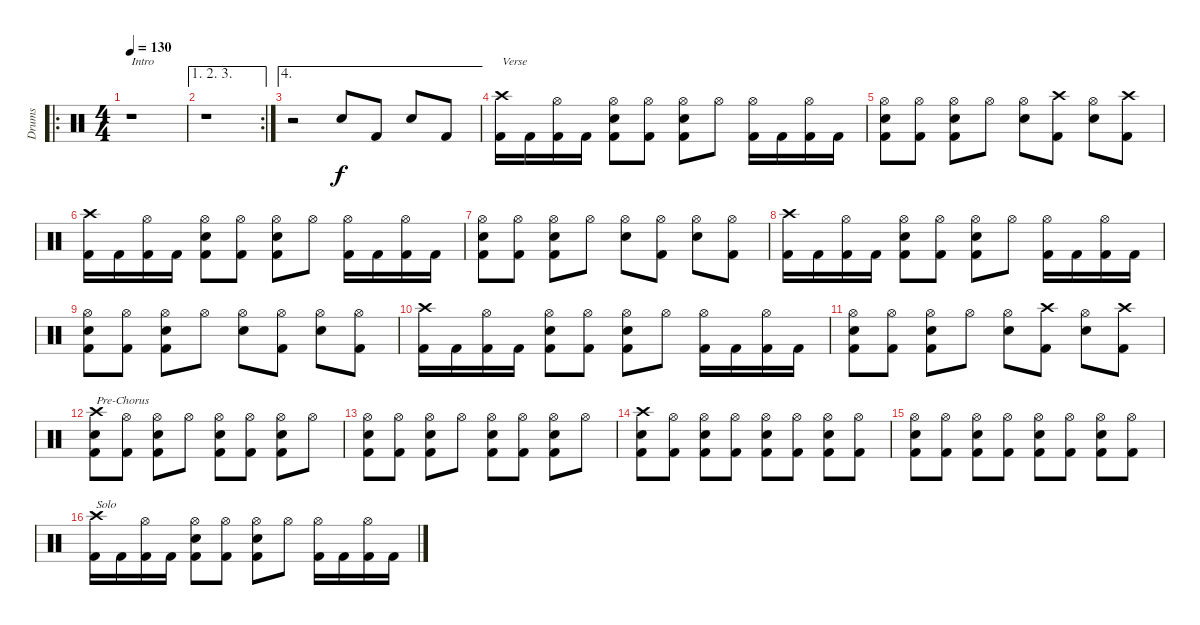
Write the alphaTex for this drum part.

\track ("Drums" "Drums") {instrument percussion}
\staff {score}
\articulation defaults
\ro
\ts (4 4)
\tempo 130
\clef neutral
\ks c
r.1{txt "Intro" dy f} |
\ae (1 2 3)
\rc 2
r.1 |
\ae 4
r.2 "Snare (hit) 2".8 "Kick (hit) 2".8 "Snare (hit) 2".8 "Kick (hit) 2".8 |
("Crash high (hit)" "Kick (hit) 2").16{txt "Verse"} "Kick (hit) 2".16 ("Hi-Hat (open)" "Kick (hit) 2").16 "Kick (hit) 2".16 ("Hi-Hat (open)" "Snare (hit) 2" "Kick (hit) 2").8 ("Hi-Hat (open)" "Kick (hit) 2").8 ("Hi-Hat (open)" "Snare (hit) 2" "Kick (hit) 2").8 "Hi-Hat (open)".8 ("Hi-Hat (open)" "Kick (hit) 2").16 "Kick (hit) 2".16 ("Hi-Hat (open)" "Kick (hit) 2").16 "Kick (hit) 2".16 |
("Hi-Hat (open)" "Snare (hit) 2" "Kick (hit) 2").8 ("Hi-Hat (open)" "Kick (hit) 2").8 ("Hi-Hat (open)" "Snare (hit) 2" "Kick (hit) 2").8 "Hi-Hat (open)".8 ("Hi-Hat (open)" "Snare (hit) 2").8 ("Crash high (hit)" "Kick (hit) 2").8 ("Hi-Hat (open)" "Snare (hit) 2").8 ("Crash high (hit)" "Kick (hit) 2").8 |
("Crash high (hit)" "Kick (hit) 2").16 "Kick (hit) 2".16 ("Hi-Hat (open)" "Kick (hit) 2").16 "Kick (hit) 2".16 ("Hi-Hat (open)" "Snare (hit) 2" "Kick (hit) 2").8 ("Hi-Hat (open)" "Kick (hit) 2").8 ("Hi-Hat (open)" "Snare (hit) 2" "Kick (hit) 2").8 "Hi-Hat (open)".8 ("Hi-Hat (open)" "Kick (hit) 2").16 "Kick (hit) 2".16 ("Hi-Hat (open)" "Kick (hit) 2").16 "Kick (hit) 2".16 |
("Hi-Hat (open)" "Snare (hit) 2" "Kick (hit) 2").8 ("Hi-Hat (open)" "Kick (hit) 2").8 ("Hi-Hat (open)" "Snare (hit) 2" "Kick (hit) 2").8 "Hi-Hat (open)".8 ("Hi-Hat (open)" "Snare (hit) 2").8 ("Hi-Hat (open)" "Kick (hit) 2").8 ("Hi-Hat (open)" "Snare (hit) 2").8 ("Hi-Hat (open)" "Kick (hit) 2").8 |
("Crash high (hit)" "Kick (hit) 2").16 "Kick (hit) 2".16 ("Hi-Hat (open)" "Kick (hit) 2").16 "Kick (hit) 2".16 ("Hi-Hat (open)" "Snare (hit) 2" "Kick (hit) 2").8 ("Hi-Hat (open)" "Kick (hit) 2").8 ("Hi-Hat (open)" "Snare (hit) 2" "Kick (hit) 2").8 "Hi-Hat (open)".8 ("Hi-Hat (open)" "Kick (hit) 2").16 "Kick (hit) 2".16 ("Hi-Hat (open)" "Kick (hit) 2").16 "Kick (hit) 2".16 |
("Hi-Hat (open)" "Snare (hit) 2" "Kick (hit) 2").8 ("Hi-Hat (open)" "Kick (hit) 2").8 ("Hi-Hat (open)" "Snare (hit) 2" "Kick (hit) 2").8 "Hi-Hat (open)".8 ("Hi-Hat (open)" "Snare (hit) 2").8 ("Hi-Hat (open)" "Kick (hit) 2").8 ("Hi-Hat (open)" "Snare (hit) 2").8 ("Hi-Hat (open)" "Kick (hit) 2").8 |
("Crash high (hit)" "Kick (hit) 2").16 "Kick (hit) 2".16 ("Hi-Hat (open)" "Kick (hit) 2").16 "Kick (hit) 2".16 ("Hi-Hat (open)" "Snare (hit) 2" "Kick (hit) 2").8 ("Hi-Hat (open)" "Kick (hit) 2").8 ("Hi-Hat (open)" "Snare (hit) 2" "Kick (hit) 2").8 "Hi-Hat (open)".8 ("Hi-Hat (open)" "Kick (hit) 2").16 "Kick (hit) 2".16 ("Hi-Hat (open)" "Kick (hit) 2").16 "Kick (hit) 2".16 |
("Hi-Hat (open)" "Snare (hit) 2" "Kick (hit) 2").8 ("Hi-Hat (open)" "Kick (hit) 2").8 ("Hi-Hat (open)" "Snare (hit) 2" "Kick (hit) 2").8 "Hi-Hat (open)".8 ("Hi-Hat (open)" "Snare (hit) 2").8 ("Crash high (hit)" "Kick (hit) 2").8 ("Hi-Hat (open)" "Snare (hit) 2").8 ("Crash high (hit)" "Kick (hit) 2").8 |
("Crash high (hit)" "Snare (hit) 2" "Kick (hit) 2").8{txt "Pre-Chorus"} ("Hi-Hat (open)" "Kick (hit) 2").8 ("Hi-Hat (open)" "Snare (hit) 2" "Kick (hit) 2").8 "Hi-Hat (open)".8 ("Hi-Hat (open)" "Snare (hit) 2" "Kick (hit) 2").8 ("Hi-Hat (open)" "Kick (hit) 2").8 ("Hi-Hat (open)" "Snare (hit) 2" "Kick (hit) 2").8 "Hi-Hat (open)".8 |
("Hi-Hat (open)" "Snare (hit) 2" "Kick (hit) 2").8 ("Hi-Hat (open)" "Kick (hit) 2").8 ("Hi-Hat (open)" "Snare (hit) 2" "Kick (hit) 2").8 "Hi-Hat (open)".8 ("Hi-Hat (open)" "Snare (hit) 2" "Kick (hit) 2").8 ("Hi-Hat (open)" "Kick (hit) 2").8 ("Hi-Hat (open)" "Snare (hit) 2" "Kick (hit) 2").8 "Hi-Hat (open)".8 |
("Crash high (hit)" "Snare (hit) 2" "Kick (hit) 2").8 ("Hi-Hat (open)" "Kick (hit) 2").8 ("Hi-Hat (open)" "Snare (hit) 2" "Kick (hit) 2").8 ("Hi-Hat (open)" "Kick (hit) 2").8 ("Hi-Hat (open)" "Snare (hit) 2" "Kick (hit) 2").8 ("Hi-Hat (open)" "Kick (hit) 2").8 ("Hi-Hat (open)" "Snare (hit) 2" "Kick (hit) 2").8 ("Hi-Hat (open)" "Kick (hit) 2").8 |
("Hi-Hat (open)" "Snare (hit) 2" "Kick (hit) 2").8 ("Hi-Hat (open)" "Kick (hit) 2").8 ("Hi-Hat (open)" "Snare (hit) 2" "Kick (hit) 2").8 ("Hi-Hat (open)" "Kick (hit) 2").8 ("Hi-Hat (open)" "Snare (hit) 2" "Kick (hit) 2").8 ("Hi-Hat (open)" "Kick (hit) 2").8 ("Hi-Hat (open)" "Snare (hit) 2" "Kick (hit) 2").8 ("Hi-Hat (open)" "Kick (hit) 2").8 |
("Crash high (hit)" "Kick (hit) 2").16{txt "Solo"} "Kick (hit) 2".16 ("Hi-Hat (open)" "Kick (hit) 2").16 "Kick (hit) 2".16 ("Hi-Hat (open)" "Snare (hit) 2" "Kick (hit) 2").8 ("Hi-Hat (open)" "Kick (hit) 2").8 ("Hi-Hat (open)" "Snare (hit) 2" "Kick (hit) 2").8 "Hi-Hat (open)".8 ("Hi-Hat (open)" "Kick (hit) 2").16 "Kick (hit) 2".16 ("Hi-Hat (open)" "Kick (hit) 2").16 "Kick (hit) 2".16
